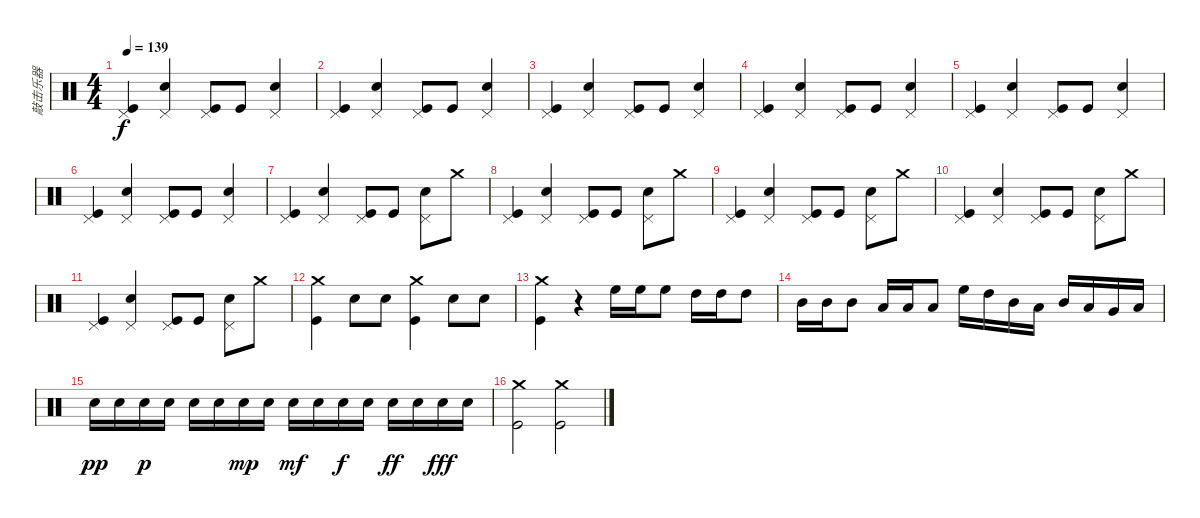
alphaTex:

\track ("敲击乐器" "敲击乐器") {instrument percussion}
\staff {score}
\articulation defaults
\ts (4 4)
\tempo 139
\clef neutral
\ks c
("Pedal Hi-Hat (hit)" "Kick (hit)").4{dy f} ("Pedal Hi-Hat (hit)" "Snare (hit) 2").4 ("Pedal Hi-Hat (hit)" "Kick (hit)").8 "Kick (hit)".8 ("Pedal Hi-Hat (hit)" "Snare (hit) 2").4 |
("Pedal Hi-Hat (hit)" "Kick (hit)").4 ("Pedal Hi-Hat (hit)" "Snare (hit) 2").4 ("Pedal Hi-Hat (hit)" "Kick (hit)").8 "Kick (hit)".8 ("Pedal Hi-Hat (hit)" "Snare (hit) 2").4 |
("Pedal Hi-Hat (hit)" "Kick (hit)").4 ("Pedal Hi-Hat (hit)" "Snare (hit) 2").4 ("Pedal Hi-Hat (hit)" "Kick (hit)").8 "Kick (hit)".8 ("Pedal Hi-Hat (hit)" "Snare (hit) 2").4 |
("Pedal Hi-Hat (hit)" "Kick (hit)").4 ("Pedal Hi-Hat (hit)" "Snare (hit) 2").4 ("Pedal Hi-Hat (hit)" "Kick (hit)").8 "Kick (hit)".8 ("Pedal Hi-Hat (hit)" "Snare (hit) 2").4 |
("Pedal Hi-Hat (hit)" "Kick (hit)").4 ("Pedal Hi-Hat (hit)" "Snare (hit) 2").4 ("Pedal Hi-Hat (hit)" "Kick (hit)").8 "Kick (hit)".8 ("Pedal Hi-Hat (hit)" "Snare (hit) 2").4 |
("Pedal Hi-Hat (hit)" "Kick (hit)").4 ("Pedal Hi-Hat (hit)" "Snare (hit) 2").4 ("Pedal Hi-Hat (hit)" "Kick (hit)").8 "Kick (hit)".8 ("Pedal Hi-Hat (hit)" "Snare (hit) 2").4 |
("Pedal Hi-Hat (hit)" "Kick (hit)").4 ("Pedal Hi-Hat (hit)" "Snare (hit) 2").4 ("Pedal Hi-Hat (hit)" "Kick (hit)").8 "Kick (hit)".8 ("Pedal Hi-Hat (hit)" "Snare (hit) 2").8 "Crash medium (hit)".8 |
("Pedal Hi-Hat (hit)" "Kick (hit)").4 ("Pedal Hi-Hat (hit)" "Snare (hit) 2").4 ("Pedal Hi-Hat (hit)" "Kick (hit)").8 "Kick (hit)".8 ("Pedal Hi-Hat (hit)" "Snare (hit) 2").8 "Crash medium (hit)".8 |
("Pedal Hi-Hat (hit)" "Kick (hit)").4 ("Pedal Hi-Hat (hit)" "Snare (hit) 2").4 ("Pedal Hi-Hat (hit)" "Kick (hit)").8 "Kick (hit)".8 ("Pedal Hi-Hat (hit)" "Snare (hit) 2").8 "Crash medium (hit)".8 |
("Pedal Hi-Hat (hit)" "Kick (hit)").4 ("Pedal Hi-Hat (hit)" "Snare (hit) 2").4 ("Pedal Hi-Hat (hit)" "Kick (hit)").8 "Kick (hit)".8 ("Pedal Hi-Hat (hit)" "Snare (hit) 2").8 "Crash medium (hit)".8 |
("Pedal Hi-Hat (hit)" "Kick (hit)").4 ("Pedal Hi-Hat (hit)" "Snare (hit) 2").4 ("Pedal Hi-Hat (hit)" "Kick (hit)").8 "Kick (hit)".8 ("Pedal Hi-Hat (hit)" "Snare (hit) 2").8 "Crash medium (hit)".8 |
("Crash medium (hit)" "Kick (hit)").4 "Snare (hit) 2".8 "Snare (hit) 2".8 ("Crash medium (hit)" "Kick (hit)").4 "Snare (hit) 2".8 "Snare (hit) 2".8 |
("Crash medium (hit)" "Kick (hit)").4 r.4 "High Floor Tom (hit)".16 "High Floor Tom (hit)".16 "High Floor Tom (hit)".8 "High Tom (hit)".16 "High Tom (hit)".16 "High Tom (hit)".8 |
"Mid Tom (hit)".16 "Mid Tom (hit)".16 "Mid Tom (hit)".8 "Low Tom (hit)".16 "Low Tom (hit)".16 "Low Tom (hit)".8 "High Floor Tom (hit)".16 "High Tom (hit)".16 "Mid Tom (hit)".16 "Low Tom (hit)".16 "Mid Tom (hit)".16 "Low Tom (hit)".16 "Very Low Tom (hit)".16 "Low Floor Tom (hit)".16 |
"Snare (hit) 2".16{dy pp} "Snare (hit) 2".16 "Snare (hit) 2".16{dy p} "Snare (hit) 2".16 "Snare (hit) 2".16 "Snare (hit) 2".16 "Snare (hit) 2".16{dy mp} "Snare (hit) 2".16 "Snare (hit) 2".16{dy mf} "Snare (hit) 2".16 "Snare (hit) 2".16{dy f} "Snare (hit) 2".16 "Snare (hit) 2".16{dy ff} "Snare (hit) 2".16 "Snare (hit) 2".16{dy fff} "Snare (hit) 2".16 |
("Crash medium (hit)" "Kick (hit)").2 ("Crash medium (hit)" "Kick (hit)").2
